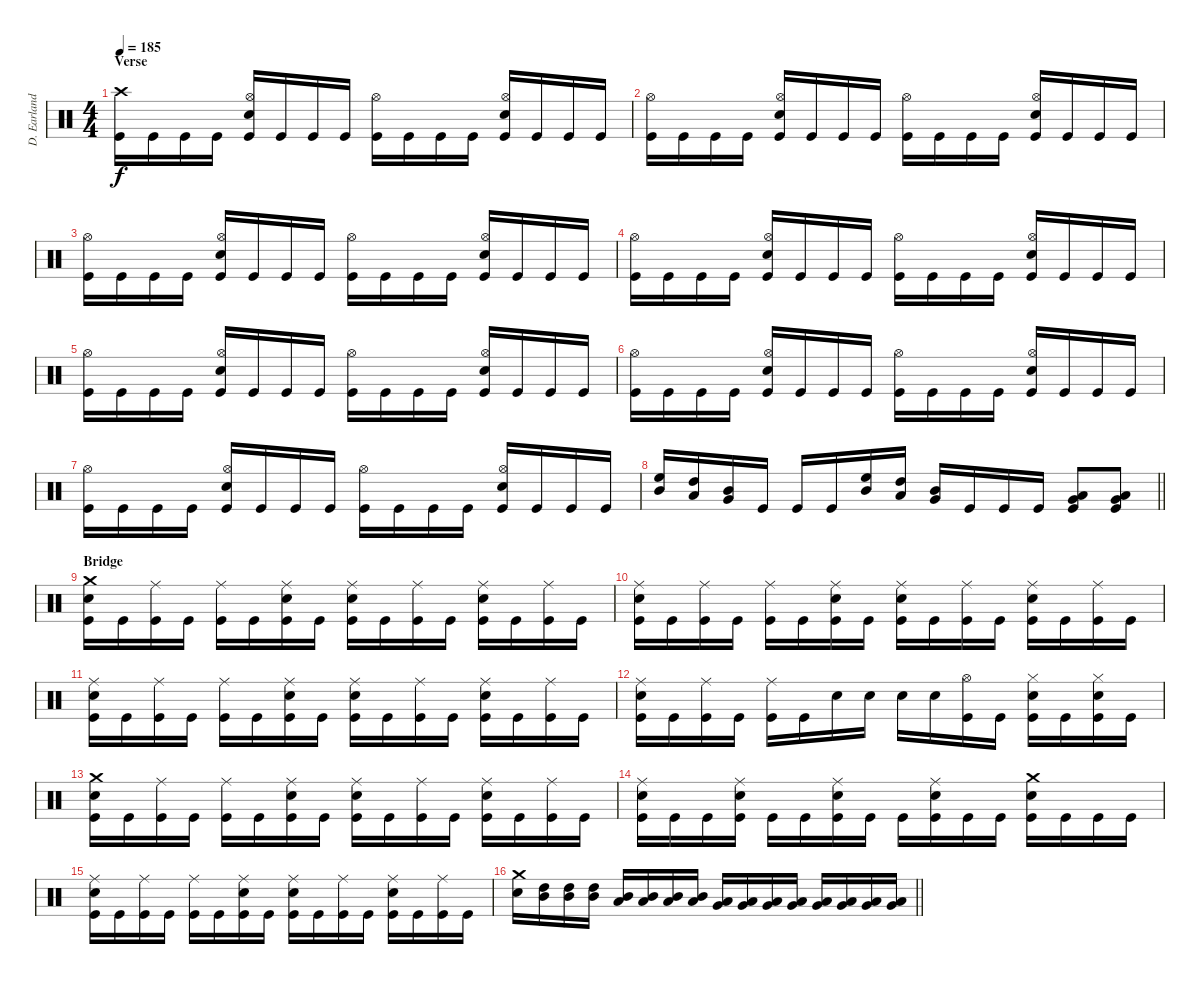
\track ("D. Earlanddson" "D. Earland") {instrument percussion}
\staff {score}
\articulation defaults
\ts (4 4)
\section ("" "Verse")
\tempo 185
\clef neutral
\ks c
("Crash high (hit)" "Kick (hit)").16{dy f} "Kick (hit)".16 "Kick (hit)".16 "Kick (hit)".16 ("Hi-Hat (open)" "Electric Snare (hit)" "Kick (hit)").16 "Kick (hit)".16 "Kick (hit)".16 "Kick (hit)".16 ("Hi-Hat (open)" "Kick (hit)").16 "Kick (hit)".16 "Kick (hit)".16 "Kick (hit)".16 ("Hi-Hat (open)" "Electric Snare (hit)" "Kick (hit)").16 "Kick (hit)".16 "Kick (hit)".16 "Kick (hit)".16 |
("Hi-Hat (open)" "Kick (hit)").16 "Kick (hit)".16 "Kick (hit)".16 "Kick (hit)".16 ("Hi-Hat (open)" "Electric Snare (hit)" "Kick (hit)").16 "Kick (hit)".16 "Kick (hit)".16 "Kick (hit)".16 ("Hi-Hat (open)" "Kick (hit)").16 "Kick (hit)".16 "Kick (hit)".16 "Kick (hit)".16 ("Hi-Hat (open)" "Electric Snare (hit)" "Kick (hit)").16 "Kick (hit)".16 "Kick (hit)".16 "Kick (hit)".16 |
("Hi-Hat (open)" "Kick (hit)").16 "Kick (hit)".16 "Kick (hit)".16 "Kick (hit)".16 ("Hi-Hat (open)" "Electric Snare (hit)" "Kick (hit)").16 "Kick (hit)".16 "Kick (hit)".16 "Kick (hit)".16 ("Hi-Hat (open)" "Kick (hit)").16 "Kick (hit)".16 "Kick (hit)".16 "Kick (hit)".16 ("Hi-Hat (open)" "Electric Snare (hit)" "Kick (hit)").16 "Kick (hit)".16 "Kick (hit)".16 "Kick (hit)".16 |
("Hi-Hat (open)" "Kick (hit)").16 "Kick (hit)".16 "Kick (hit)".16 "Kick (hit)".16 ("Hi-Hat (open)" "Electric Snare (hit)" "Kick (hit)").16 "Kick (hit)".16 "Kick (hit)".16 "Kick (hit)".16 ("Hi-Hat (open)" "Kick (hit)").16 "Kick (hit)".16 "Kick (hit)".16 "Kick (hit)".16 ("Hi-Hat (open)" "Electric Snare (hit)" "Kick (hit)").16 "Kick (hit)".16 "Kick (hit)".16 "Kick (hit)".16 |
("Hi-Hat (open)" "Kick (hit)").16 "Kick (hit)".16 "Kick (hit)".16 "Kick (hit)".16 ("Hi-Hat (open)" "Electric Snare (hit)" "Kick (hit)").16 "Kick (hit)".16 "Kick (hit)".16 "Kick (hit)".16 ("Hi-Hat (open)" "Kick (hit)").16 "Kick (hit)".16 "Kick (hit)".16 "Kick (hit)".16 ("Hi-Hat (open)" "Electric Snare (hit)" "Kick (hit)").16 "Kick (hit)".16 "Kick (hit)".16 "Kick (hit)".16 |
("Hi-Hat (open)" "Kick (hit)").16 "Kick (hit)".16 "Kick (hit)".16 "Kick (hit)".16 ("Hi-Hat (open)" "Electric Snare (hit)" "Kick (hit)").16 "Kick (hit)".16 "Kick (hit)".16 "Kick (hit)".16 ("Hi-Hat (open)" "Kick (hit)").16 "Kick (hit)".16 "Kick (hit)".16 "Kick (hit)".16 ("Hi-Hat (open)" "Electric Snare (hit)" "Kick (hit)").16 "Kick (hit)".16 "Kick (hit)".16 "Kick (hit)".16 |
("Hi-Hat (open)" "Kick (hit)").16 "Kick (hit)".16 "Kick (hit)".16 "Kick (hit)".16 ("Hi-Hat (open)" "Electric Snare (hit)" "Kick (hit)").16 "Kick (hit)".16 "Kick (hit)".16 "Kick (hit)".16 ("Hi-Hat (open)" "Kick (hit)").16 "Kick (hit)".16 "Kick (hit)".16 "Kick (hit)".16 ("Hi-Hat (open)" "Electric Snare (hit)" "Kick (hit)").16 "Kick (hit)".16 "Kick (hit)".16 "Kick (hit)".16 |
\barLineRight lightlight
("High Floor Tom (hit)" "Mid Tom (hit)").16 ("High Tom (hit)" "Low Tom (hit)").16 ("Mid Tom (hit)" "Very Low Tom (hit)").16 "Kick (hit)".16 "Kick (hit)".16 "Kick (hit)".16 ("High Floor Tom (hit)" "Mid Tom (hit)").16 ("High Tom (hit)" "Low Tom (hit)").16 ("Mid Tom (hit)" "Very Low Tom (hit)").16 "Kick (hit)".16 "Kick (hit)".16 "Kick (hit)".16 ("Very Low Tom (hit)" "Low Floor Tom (hit)" "Kick (hit)").8 ("Very Low Tom (hit)" "Low Floor Tom (hit)" "Kick (hit)").8 |
\section ("" "Bridge")
("Crash medium (hit)" "Electric Snare (hit)" "Kick (hit)").16 "Kick (hit)".16 ("Ride (middle)" "Kick (hit)").16 "Kick (hit)".16 ("Ride (middle)" "Kick (hit)").16 "Kick (hit)".16 ("Ride (middle)" "Electric Snare (hit)" "Kick (hit)").16 "Kick (hit)".16 ("Ride (middle)" "Electric Snare (hit)" "Kick (hit)").16 "Kick (hit)".16 ("Ride (middle)" "Kick (hit)").16 "Kick (hit)".16 ("Ride (middle)" "Electric Snare (hit)" "Kick (hit)").16 "Kick (hit)".16 ("Ride (middle)" "Kick (hit)").16 "Kick (hit)".16 |
("Ride (middle)" "Electric Snare (hit)" "Kick (hit)").16 "Kick (hit)".16 ("Ride (middle)" "Kick (hit)").16 "Kick (hit)".16 ("Ride (middle)" "Kick (hit)").16 "Kick (hit)".16 ("Ride (middle)" "Electric Snare (hit)" "Kick (hit)").16 "Kick (hit)".16 ("Ride (middle)" "Electric Snare (hit)" "Kick (hit)").16 "Kick (hit)".16 ("Ride (middle)" "Kick (hit)").16 "Kick (hit)".16 ("Ride (middle)" "Electric Snare (hit)" "Kick (hit)").16 "Kick (hit)".16 ("Ride (middle)" "Kick (hit)").16 "Kick (hit)".16 |
("Ride (middle)" "Electric Snare (hit)" "Kick (hit)").16 "Kick (hit)".16 ("Ride (middle)" "Kick (hit)").16 "Kick (hit)".16 ("Ride (middle)" "Kick (hit)").16 "Kick (hit)".16 ("Ride (middle)" "Electric Snare (hit)" "Kick (hit)").16 "Kick (hit)".16 ("Ride (middle)" "Electric Snare (hit)" "Kick (hit)").16 "Kick (hit)".16 ("Ride (middle)" "Kick (hit)").16 "Kick (hit)".16 ("Ride (middle)" "Electric Snare (hit)" "Kick (hit)").16 "Kick (hit)".16 ("Ride (middle)" "Kick (hit)").16 "Kick (hit)".16 |
("Ride (middle)" "Electric Snare (hit)" "Kick (hit)").16 "Kick (hit)".16 ("Ride (middle)" "Kick (hit)").16 "Kick (hit)".16 ("Ride (middle)" "Kick (hit)").16 "Kick (hit)".16 "Electric Snare (hit)".16 "Electric Snare (hit)".16 "Electric Snare (hit)".16 "Electric Snare (hit)".16 ("Hi-Hat (open)" "Kick (hit)").16 "Kick (hit)".16 ("Hi-Hat (closed)" "Electric Snare (hit)" "Kick (hit)").16 "Kick (hit)".16 ("Hi-Hat (closed)" "Electric Snare (hit)" "Kick (hit)").16 "Kick (hit)".16 |
("Crash medium (hit)" "Electric Snare (hit)" "Kick (hit)").16 "Kick (hit)".16 ("Ride (middle)" "Kick (hit)").16 "Kick (hit)".16 ("Ride (middle)" "Kick (hit)").16 "Kick (hit)".16 ("Ride (middle)" "Electric Snare (hit)" "Kick (hit)").16 "Kick (hit)".16 ("Ride (middle)" "Electric Snare (hit)" "Kick (hit)").16 "Kick (hit)".16 ("Ride (middle)" "Kick (hit)").16 "Kick (hit)".16 ("Ride (middle)" "Electric Snare (hit)" "Kick (hit)").16 "Kick (hit)".16 ("Ride (middle)" "Kick (hit)").16 "Kick (hit)".16 |
("Ride (middle)" "Electric Snare (hit)" "Kick (hit)").16 "Kick (hit)".16 "Kick (hit)".16 ("Ride (middle)" "Electric Snare (hit)" "Kick (hit)").16 "Kick (hit)".16 "Kick (hit)".16 ("Ride (middle)" "Electric Snare (hit)" "Kick (hit)").16 "Kick (hit)".16 "Kick (hit)".16 ("Ride (middle)" "Electric Snare (hit)" "Kick (hit)").16 "Kick (hit)".16 "Kick (hit)".16 ("Crash medium (hit)" "Electric Snare (hit)" "Kick (hit)").16 "Kick (hit)".16 "Kick (hit)".16 "Kick (hit)".16 |
("Ride (middle)" "Electric Snare (hit)" "Kick (hit)").16 "Kick (hit)".16 ("Ride (middle)" "Kick (hit)").16 "Kick (hit)".16 ("Ride (middle)" "Kick (hit)").16 "Kick (hit)".16 ("Ride (middle)" "Electric Snare (hit)" "Kick (hit)").16 "Kick (hit)".16 ("Ride (middle)" "Electric Snare (hit)" "Kick (hit)").16 "Kick (hit)".16 ("Ride (middle)" "Kick (hit)").16 "Kick (hit)".16 ("Ride (middle)" "Electric Snare (hit)" "Kick (hit)").16 "Kick (hit)".16 ("Ride (middle)" "Kick (hit)").16 "Kick (hit)".16 |
\barLineRight lightlight
("Crash medium (hit)" "Electric Snare (hit)").16 ("High Tom (hit)" "Mid Tom (hit)").16 ("High Tom (hit)" "Mid Tom (hit)").16 ("High Tom (hit)" "Mid Tom (hit)").16 ("Mid Tom (hit)" "Low Tom (hit)").16 ("Mid Tom (hit)" "Low Tom (hit)").16 ("Mid Tom (hit)" "Low Tom (hit)").16 ("Mid Tom (hit)" "Low Tom (hit)").16 ("Low Tom (hit)" "Very Low Tom (hit)").16 ("Low Tom (hit)" "Very Low Tom (hit)").16 ("Low Tom (hit)" "Very Low Tom (hit)").16 ("Low Tom (hit)" "Very Low Tom (hit)").16 ("Very Low Tom (hit)" "Low Floor Tom (hit)").16 ("Very Low Tom (hit)" "Low Floor Tom (hit)").16 ("Very Low Tom (hit)" "Low Floor Tom (hit)").16 ("Very Low Tom (hit)" "Low Floor Tom (hit)").16
